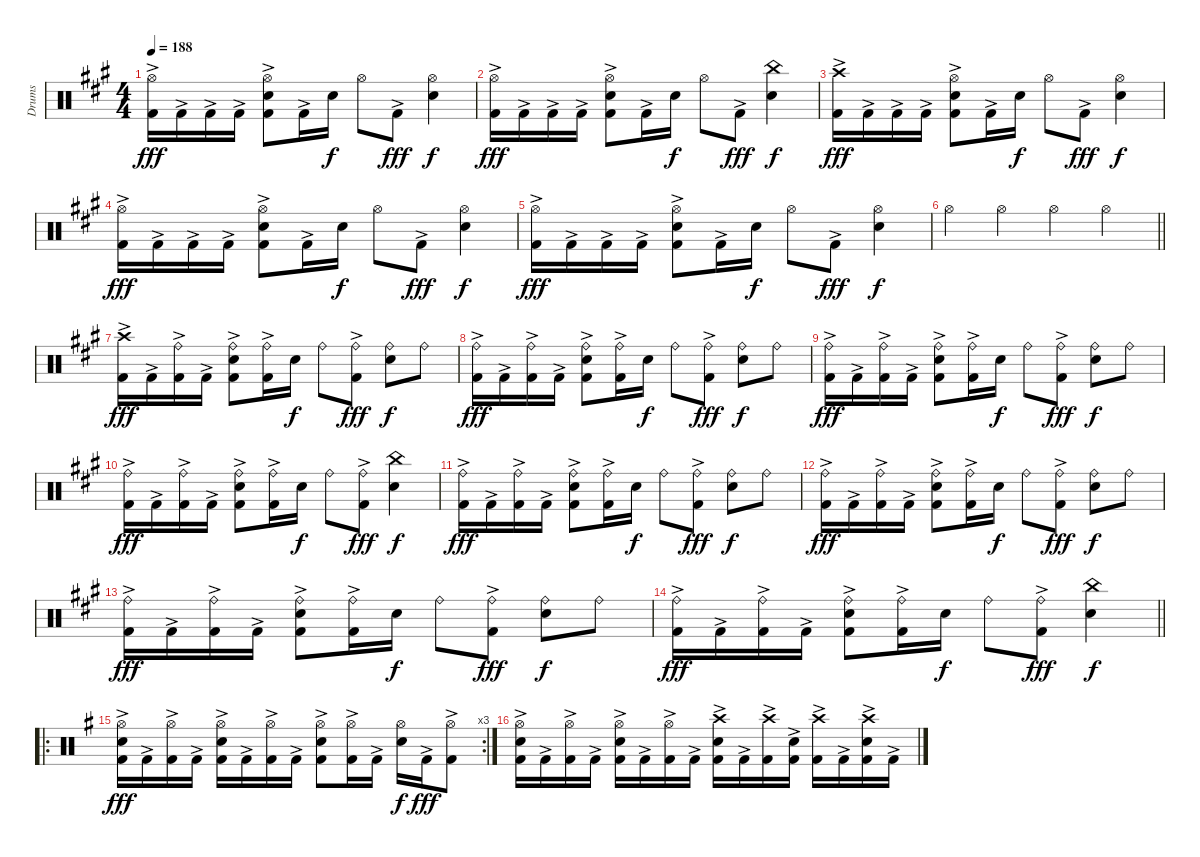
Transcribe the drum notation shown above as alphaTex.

\track ("Drums" "Drums") {instrument percussion}
\staff {score}
\articulation defaults
\ts (4 4)
\tempo 188
\clef neutral
\ks f#minor
("Hi-Hat (open)" "Kick (hit) 2"{ac}).16{dy fff} "Kick (hit) 2"{ac}.16 "Kick (hit) 2"{ac}.16 "Kick (hit) 2"{ac}.16 ("Hi-Hat (open)" "Snare (hit) 2" "Kick (hit) 2"{ac}).8 "Kick (hit) 2"{ac}.16 "Snare (hit) 2".16{dy f} "Hi-Hat (open)".8 "Kick (hit) 2"{ac}.8{dy fff} ("Hi-Hat (open)" "Snare (hit) 2").4{dy f} |
("Hi-Hat (open)" "Kick (hit) 2"{ac}).16{dy fff} "Kick (hit) 2"{ac}.16 "Kick (hit) 2"{ac}.16 "Kick (hit) 2"{ac}.16 ("Hi-Hat (open)" "Snare (hit) 2" "Kick (hit) 2"{ac}).8 "Kick (hit) 2"{ac}.16 "Snare (hit) 2".16{dy f} "Hi-Hat (open)".8 "Kick (hit) 2"{ac}.8{dy fff} ("China (hit)" "Snare (hit) 2").4{dy f} |
("Crash high (hit)" "Kick (hit) 2"{ac}).16{dy fff} "Kick (hit) 2"{ac}.16 "Kick (hit) 2"{ac}.16 "Kick (hit) 2"{ac}.16 ("Hi-Hat (open)" "Snare (hit) 2" "Kick (hit) 2"{ac}).8 "Kick (hit) 2"{ac}.16 "Snare (hit) 2".16{dy f} "Hi-Hat (open)".8 "Kick (hit) 2"{ac}.8{dy fff} ("Hi-Hat (open)" "Snare (hit) 2").4{dy f} |
("Hi-Hat (open)" "Kick (hit) 2"{ac}).16{dy fff} "Kick (hit) 2"{ac}.16 "Kick (hit) 2"{ac}.16 "Kick (hit) 2"{ac}.16 ("Hi-Hat (open)" "Snare (hit) 2" "Kick (hit) 2"{ac}).8 "Kick (hit) 2"{ac}.16 "Snare (hit) 2".16{dy f} "Hi-Hat (open)".8 "Kick (hit) 2"{ac}.8{dy fff} ("Hi-Hat (open)" "Snare (hit) 2").4{dy f} |
("Hi-Hat (open)" "Kick (hit) 2"{ac}).16{dy fff} "Kick (hit) 2"{ac}.16 "Kick (hit) 2"{ac}.16 "Kick (hit) 2"{ac}.16 ("Hi-Hat (open)" "Snare (hit) 2" "Kick (hit) 2"{ac}).8 "Kick (hit) 2"{ac}.16 "Snare (hit) 2".16{dy f} "Hi-Hat (open)".8 "Kick (hit) 2"{ac}.8{dy fff} ("Hi-Hat (open)" "Snare (hit) 2").4{dy f} |
\barLineRight lightlight "Hi-Hat (open)".4 "Hi-Hat (open)".4 "Hi-Hat (open)".4 "Hi-Hat (open)".4
|
("Crash high (hit)" "Kick (hit) 2"{ac}).16{dy fff} "Kick (hit) 2"{ac}.16 ("Ride (bell)" "Kick (hit) 2"{ac}).16 "Kick (hit) 2"{ac}.16 ("Ride (bell)" "Snare (hit) 2" "Kick (hit) 2"{ac}).8 ("Ride (bell)" "Kick (hit) 2"{ac}).16 "Snare (hit) 2".16{dy f} "Ride (bell)".8 ("Ride (bell)" "Kick (hit) 2"{ac}).8{dy fff} ("Ride (bell)" "Snare (hit) 2").8{dy f} "Ride (bell)".8 |
("Ride (bell)" "Kick (hit) 2"{ac}).16{dy fff} "Kick (hit) 2"{ac}.16 ("Ride (bell)" "Kick (hit) 2"{ac}).16 "Kick (hit) 2"{ac}.16 ("Ride (bell)" "Snare (hit) 2" "Kick (hit) 2"{ac}).8 ("Ride (bell)" "Kick (hit) 2"{ac}).16 "Snare (hit) 2".16{dy f} "Ride (bell)".8 ("Ride (bell)" "Kick (hit) 2"{ac}).8{dy fff} ("Ride (bell)" "Snare (hit) 2").8{dy f} "Ride (bell)".8 |
("Ride (bell)" "Kick (hit) 2"{ac}).16{dy fff} "Kick (hit) 2"{ac}.16 ("Ride (bell)" "Kick (hit) 2"{ac}).16 "Kick (hit) 2"{ac}.16 ("Ride (bell)" "Snare (hit) 2" "Kick (hit) 2"{ac}).8 ("Ride (bell)" "Kick (hit) 2"{ac}).16 "Snare (hit) 2".16{dy f} "Ride (bell)".8 ("Ride (bell)" "Kick (hit) 2"{ac}).8{dy fff} ("Ride (bell)" "Snare (hit) 2").8{dy f} "Ride (bell)".8 |
("Ride (bell)" "Kick (hit) 2"{ac}).16{dy fff} "Kick (hit) 2"{ac}.16 ("Ride (bell)" "Kick (hit) 2"{ac}).16 "Kick (hit) 2"{ac}.16 ("Ride (bell)" "Snare (hit) 2" "Kick (hit) 2"{ac}).8 ("Ride (bell)" "Kick (hit) 2"{ac}).16 "Snare (hit) 2".16{dy f} "Ride (bell)".8 ("Ride (bell)" "Kick (hit) 2"{ac}).8{dy fff} ("China (hit)" "Snare (hit) 2").4{dy f} |
("Ride (bell)" "Kick (hit) 2"{ac}).16{dy fff} "Kick (hit) 2"{ac}.16 ("Ride (bell)" "Kick (hit) 2"{ac}).16 "Kick (hit) 2"{ac}.16 ("Ride (bell)" "Snare (hit) 2" "Kick (hit) 2"{ac}).8 ("Ride (bell)" "Kick (hit) 2"{ac}).16 "Snare (hit) 2".16{dy f} "Ride (bell)".8 ("Ride (bell)" "Kick (hit) 2"{ac}).8{dy fff} ("Ride (bell)" "Snare (hit) 2").8{dy f} "Ride (bell)".8 |
("Ride (bell)" "Kick (hit) 2"{ac}).16{dy fff} "Kick (hit) 2"{ac}.16 ("Ride (bell)" "Kick (hit) 2"{ac}).16 "Kick (hit) 2"{ac}.16 ("Ride (bell)" "Snare (hit) 2" "Kick (hit) 2"{ac}).8 ("Ride (bell)" "Kick (hit) 2"{ac}).16 "Snare (hit) 2".16{dy f} "Ride (bell)".8 ("Ride (bell)" "Kick (hit) 2"{ac}).8{dy fff} ("Ride (bell)" "Snare (hit) 2").8{dy f} "Ride (bell)".8 |
("Ride (bell)" "Kick (hit) 2"{ac}).16{dy fff} "Kick (hit) 2"{ac}.16 ("Ride (bell)" "Kick (hit) 2"{ac}).16 "Kick (hit) 2"{ac}.16 ("Ride (bell)" "Snare (hit) 2" "Kick (hit) 2"{ac}).8 ("Ride (bell)" "Kick (hit) 2"{ac}).16 "Snare (hit) 2".16{dy f} "Ride (bell)".8 ("Ride (bell)" "Kick (hit) 2"{ac}).8{dy fff} ("Ride (bell)" "Snare (hit) 2").8{dy f} "Ride (bell)".8 |
\barLineRight lightlight
("Ride (bell)" "Kick (hit) 2"{ac}).16{dy fff} "Kick (hit) 2"{ac}.16 ("Ride (bell)" "Kick (hit) 2"{ac}).16 "Kick (hit) 2"{ac}.16 ("Ride (bell)" "Snare (hit) 2" "Kick (hit) 2"{ac}).8 ("Ride (bell)" "Kick (hit) 2"{ac}).16 "Snare (hit) 2".16{dy f} "Ride (bell)".8 ("Ride (bell)" "Kick (hit) 2"{ac}).8{dy fff} ("China (hit)" "Snare (hit) 2").4{dy f} |
\ro
\rc 3
\ks eminor
("Hi-Hat (open)" "Snare (hit) 2" "Kick (hit) 2"{ac}).16{dy fff} "Kick (hit) 2"{ac}.16 ("Hi-Hat (open)" "Kick (hit) 2"{ac}).16 "Kick (hit) 2"{ac}.16 ("Hi-Hat (open)" "Snare (hit) 2" "Kick (hit) 2"{ac}).16 "Kick (hit) 2"{ac}.16 ("Hi-Hat (open)" "Kick (hit) 2"{ac}).16 "Kick (hit) 2"{ac}.16 ("Hi-Hat (open)" "Snare (hit) 2" "Kick (hit) 2"{ac}).8 ("Hi-Hat (open)" "Kick (hit) 2"{ac}).16 "Kick (hit) 2"{ac}.16 ("Hi-Hat (open)" "Snare (hit) 2").16{dy f} "Kick (hit) 2"{ac}.16{dy fff} ("Hi-Hat (open)" "Kick (hit) 2"{ac}).8 |
("Hi-Hat (open)" "Snare (hit) 2" "Kick (hit) 2"{ac}).16 "Kick (hit) 2"{ac}.16 ("Hi-Hat (open)" "Kick (hit) 2"{ac}).16 "Kick (hit) 2"{ac}.16 ("Hi-Hat (open)" "Snare (hit) 2" "Kick (hit) 2"{ac}).16 "Kick (hit) 2"{ac}.16 ("Hi-Hat (open)" "Kick (hit) 2"{ac}).16 "Kick (hit) 2"{ac}.16 ("Crash high (hit)" "Snare (hit) 2" "Kick (hit) 2"{ac}).16 "Kick (hit) 2"{ac}.16 ("Crash high (hit)" "Kick (hit) 2"{ac}).16 ("Snare (hit) 2" "Kick (hit) 2"{ac}).16 ("Crash high (hit)" "Kick (hit) 2"{ac}).16 "Kick (hit) 2"{ac}.16 ("Crash high (hit)" "Snare (hit) 2" "Kick (hit) 2"{ac}).16 "Kick (hit) 2"{ac}.16
